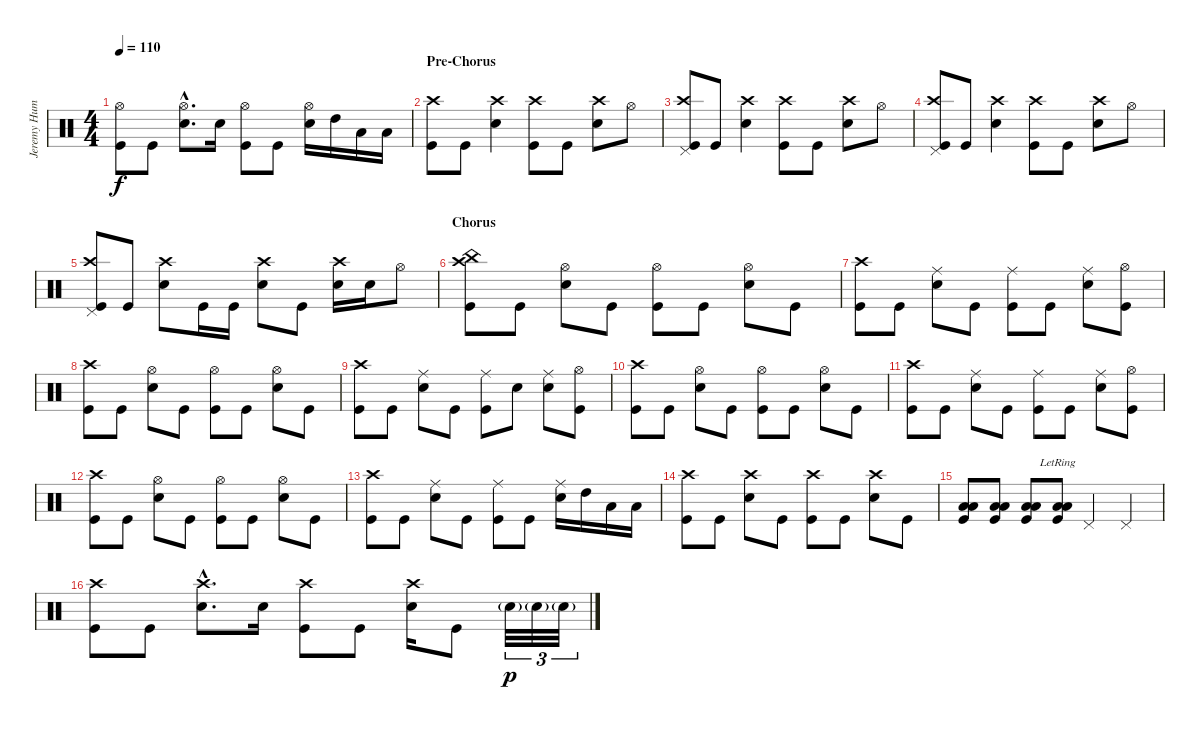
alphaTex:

\track ("Jeremy Hummel" "Jeremy Hum") {instrument percussion}
\staff {score}
\articulation defaults
\ts (4 4)
\tempo 110
\clef neutral
\ks c
("Hi-Hat (open)" "Kick (hit)").8{dy f} "Kick (hit)".8 ("Hi-Hat (open)"{hac} "Electric Snare (hit)"{hac}).8{d} "Electric Snare (hit)".16 ("Hi-Hat (open)" "Kick (hit)").8 "Kick (hit)".8 ("Hi-Hat (open)" "Electric Snare (hit)").16 "High Tom (hit)".16 "Low Tom (hit)".16 "Low Floor Tom (hit)".16 |
\section ("" "Pre-Chorus")
("Crash high (hit)" "Kick (hit)").8 "Kick (hit)".8 ("Crash high (hit)" "Electric Snare (hit)").4 ("Crash high (hit)" "Kick (hit)").8 "Kick (hit)".8 ("Crash high (hit)" "Electric Snare (hit)").8 "Hi-Hat (open)".8 |
("Crash high (hit)" "Pedal Hi-Hat (hit)" "Kick (hit)").8 "Kick (hit)".8 ("Crash high (hit)" "Electric Snare (hit)").4 ("Crash high (hit)" "Kick (hit)").8 "Kick (hit)".8 ("Crash high (hit)" "Electric Snare (hit)").8 "Hi-Hat (open)".8 |
("Crash high (hit)" "Pedal Hi-Hat (hit)" "Kick (hit)").8 "Kick (hit)".8 ("Crash high (hit)" "Electric Snare (hit)").4 ("Crash high (hit)" "Kick (hit)").8 "Kick (hit)".8 ("Crash high (hit)" "Electric Snare (hit)").8 "Hi-Hat (open)".8 |
("Crash high (hit)" "Pedal Hi-Hat (hit)" "Kick (hit)").8 "Kick (hit)".8 ("Crash high (hit)" "Electric Snare (hit)").8 "Kick (hit)".16 "Kick (hit)".16 ("Crash high (hit)" "Electric Snare (hit)").8 "Kick (hit)".8 ("Crash high (hit)" "Electric Snare (hit)").16 "Electric Snare (hit)".16 "Hi-Hat (open)".8 |
\section ("" "Chorus")
("China (hit)" "Crash high (hit)" "Kick (hit)").8 "Kick (hit)".8 ("Hi-Hat (open)" "Electric Snare (hit)").8 "Kick (hit)".8 ("Hi-Hat (open)" "Kick (hit)").8 "Kick (hit)".8 ("Hi-Hat (open)" "Electric Snare (hit)").8 "Kick (hit)".8 |
("Crash high (hit)" "Kick (hit)").8 "Kick (hit)".8 ("Ride (middle)" "Electric Snare (hit)").8 "Kick (hit)".8 ("Ride (middle)" "Kick (hit)").8 "Kick (hit)".8 ("Ride (middle)" "Electric Snare (hit)").8 ("Hi-Hat (open)" "Kick (hit)").8 |
("Crash high (hit)" "Kick (hit)").8 "Kick (hit)".8 ("Hi-Hat (open)" "Electric Snare (hit)").8 "Kick (hit)".8 ("Hi-Hat (open)" "Kick (hit)").8 "Kick (hit)".8 ("Hi-Hat (open)" "Electric Snare (hit)").8 "Kick (hit)".8 |
("Crash high (hit)" "Kick (hit)").8 "Kick (hit)".8 ("Ride (middle)" "Electric Snare (hit)").8 "Kick (hit)".8 ("Ride (middle)" "Kick (hit)").8 "Electric Snare (hit)".8 ("Ride (middle)" "Electric Snare (hit)").8 ("Hi-Hat (open)" "Kick (hit)").8 |
("Crash high (hit)" "Kick (hit)").8 "Kick (hit)".8 ("Hi-Hat (open)" "Electric Snare (hit)").8 "Kick (hit)".8 ("Hi-Hat (open)" "Kick (hit)").8 "Kick (hit)".8 ("Hi-Hat (open)" "Electric Snare (hit)").8 "Kick (hit)".8 |
("Crash high (hit)" "Kick (hit)").8 "Kick (hit)".8 ("Ride (middle)" "Electric Snare (hit)").8 "Kick (hit)".8 ("Ride (middle)" "Kick (hit)").8 "Kick (hit)".8 ("Ride (middle)" "Electric Snare (hit)").8 ("Hi-Hat (open)" "Kick (hit)").8 |
("Crash high (hit)" "Kick (hit)").8 "Kick (hit)".8 ("Hi-Hat (open)" "Electric Snare (hit)").8 "Kick (hit)".8 ("Hi-Hat (open)" "Kick (hit)").8 "Kick (hit)".8 ("Hi-Hat (open)" "Electric Snare (hit)").8 "Kick (hit)".8 |
("Crash high (hit)" "Kick (hit)").8 "Kick (hit)".8 ("Ride (middle)" "Electric Snare (hit)").8 "Kick (hit)".8 ("Ride (middle)" "Kick (hit)").8 "Kick (hit)".8 ("Ride (middle)" "Electric Snare (hit)").16 "High Tom (hit)".16 "Low Tom (hit)".16 "Low Floor Tom (hit)".16 |
("Crash high (hit)" "Kick (hit)").8 "Kick (hit)".8 ("Crash high (hit)" "Electric Snare (hit)").8 "Kick (hit)".8 ("Crash high (hit)" "Kick (hit)").8 "Kick (hit)".8 ("Crash high (hit)" "Electric Snare (hit)").8 "Kick (hit)".8 |
("Low Floor Tom (hit)" "Low Tom (hit)" "Kick (hit)").8{volume 8} ("Low Floor Tom (hit)" "Low Tom (hit)" "Kick (hit)").8{volume 13} ("Low Floor Tom (hit)" "Low Tom (hit)" "Kick (hit)").8 ("Low Floor Tom (hit)"{lr} "Low Tom (hit)"{lr} "Kick (hit)").8 "Pedal Hi-Hat (hit)".4 "Pedal Hi-Hat (hit)".4 |
("Crash high (hit)" "Kick (hit)").8 "Kick (hit)".8 ("Crash high (hit)"{hac} "Electric Snare (hit)"{hac}).8{d} "Electric Snare (hit)".16 ("Crash high (hit)" "Kick (hit)").8 "Kick (hit)".8 ("Crash high (hit)" "Electric Snare (hit)").16 "Kick (hit)".8 "Electric Snare (hit)"{g}.32{tu (3 2) dy p} "Electric Snare (hit)"{g}.32{tu (3 2)} "Electric Snare (hit)"{g}.32{tu (3 2)}
